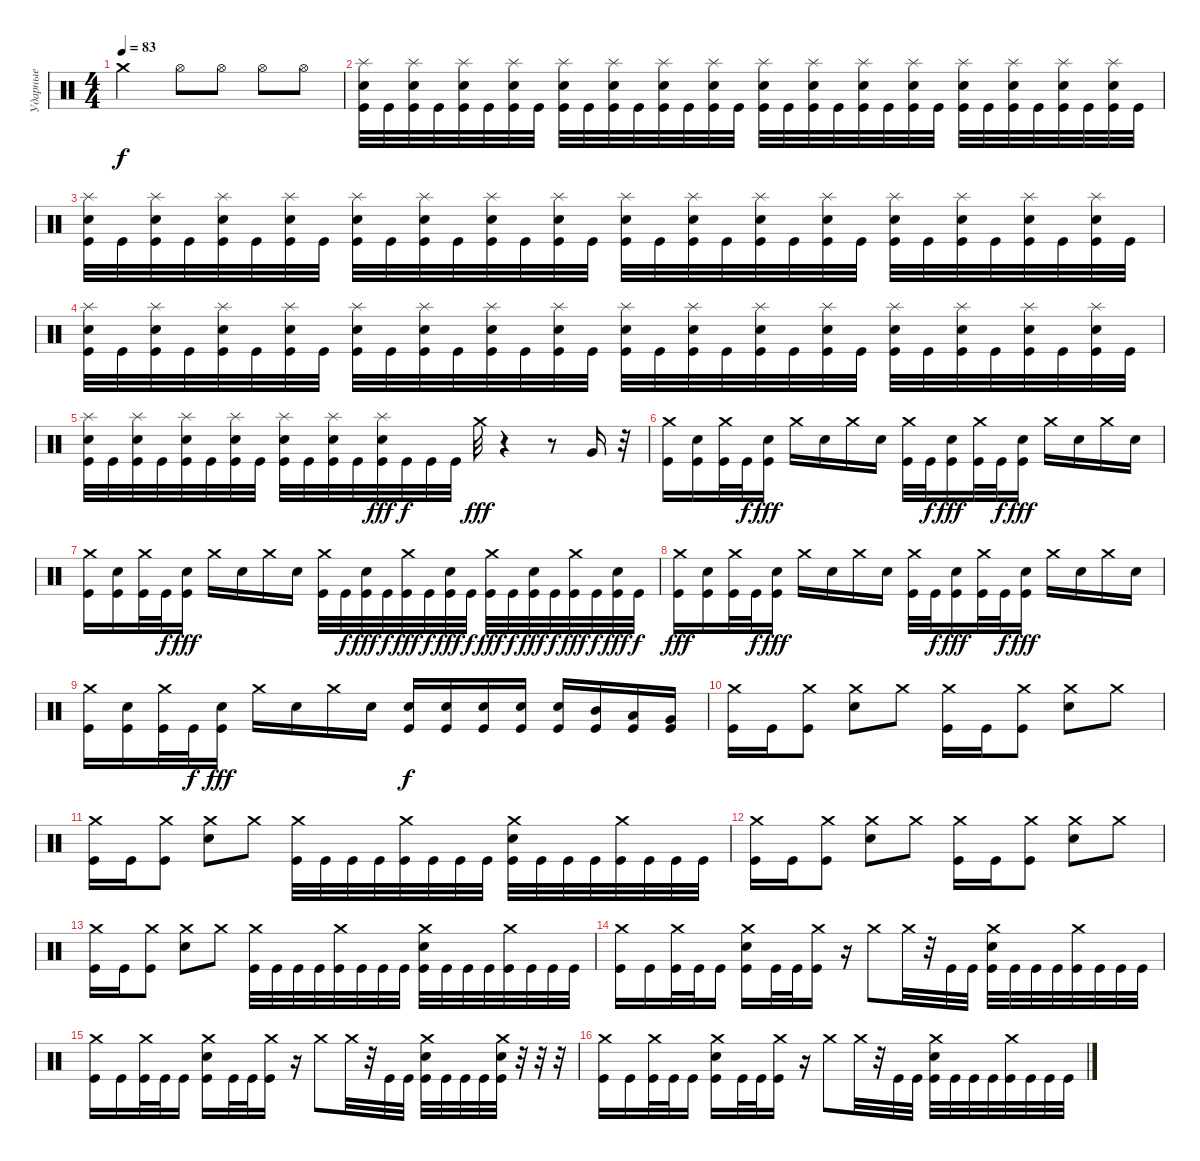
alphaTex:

\track ("Ударные" "Ударные") {instrument percussion}
\staff {score}
\articulation defaults
\ts (4 4)
\tempo 83
\clef neutral
\ks c "Crash medium (hit)".2{dy f} "Hi-Hat (open)".8 "Hi-Hat (open)".8 "Hi-Hat (open)".8 "Hi-Hat (open)".8
|
("Splash (hit)" "Snare (hit) 2" "Kick (hit)").32 "Kick (hit)".32 ("Splash (hit)" "Snare (hit) 2" "Kick (hit)").32 "Kick (hit)".32 ("Splash (hit)" "Snare (hit) 2" "Kick (hit)").32 "Kick (hit)".32 ("Splash (hit)" "Snare (hit) 2" "Kick (hit)").32 "Kick (hit)".32 ("Splash (hit)" "Snare (hit) 2" "Kick (hit)").32 "Kick (hit)".32 ("Splash (hit)" "Snare (hit) 2" "Kick (hit)").32 "Kick (hit)".32 ("Splash (hit)" "Snare (hit) 2" "Kick (hit)").32 "Kick (hit)".32 ("Splash (hit)" "Snare (hit) 2" "Kick (hit)").32 "Kick (hit)".32 ("Splash (hit)" "Snare (hit) 2" "Kick (hit)").32 "Kick (hit)".32 ("Splash (hit)" "Snare (hit) 2" "Kick (hit)").32 "Kick (hit)".32 ("Splash (hit)" "Snare (hit) 2" "Kick (hit)").32 "Kick (hit)".32 ("Splash (hit)" "Snare (hit) 2" "Kick (hit)").32 "Kick (hit)".32 ("Splash (hit)" "Snare (hit) 2" "Kick (hit)").32 "Kick (hit)".32 ("Splash (hit)" "Snare (hit) 2" "Kick (hit)").32 "Kick (hit)".32 ("Splash (hit)" "Snare (hit) 2" "Kick (hit)").32 "Kick (hit)".32 ("Splash (hit)" "Snare (hit) 2" "Kick (hit)").32 "Kick (hit)".32 |
("Splash (hit)" "Snare (hit) 2" "Kick (hit)").32 "Kick (hit)".32 ("Splash (hit)" "Snare (hit) 2" "Kick (hit)").32 "Kick (hit)".32 ("Splash (hit)" "Snare (hit) 2" "Kick (hit)").32 "Kick (hit)".32 ("Splash (hit)" "Snare (hit) 2" "Kick (hit)").32 "Kick (hit)".32 ("Splash (hit)" "Snare (hit) 2" "Kick (hit)").32 "Kick (hit)".32 ("Splash (hit)" "Snare (hit) 2" "Kick (hit)").32 "Kick (hit)".32 ("Splash (hit)" "Snare (hit) 2" "Kick (hit)").32 "Kick (hit)".32 ("Splash (hit)" "Snare (hit) 2" "Kick (hit)").32 "Kick (hit)".32 ("Splash (hit)" "Snare (hit) 2" "Kick (hit)").32 "Kick (hit)".32 ("Splash (hit)" "Snare (hit) 2" "Kick (hit)").32 "Kick (hit)".32 ("Splash (hit)" "Snare (hit) 2" "Kick (hit)").32 "Kick (hit)".32 ("Splash (hit)" "Snare (hit) 2" "Kick (hit)").32 "Kick (hit)".32 ("Splash (hit)" "Snare (hit) 2" "Kick (hit)").32 "Kick (hit)".32 ("Splash (hit)" "Snare (hit) 2" "Kick (hit)").32 "Kick (hit)".32 ("Splash (hit)" "Snare (hit) 2" "Kick (hit)").32 "Kick (hit)".32 ("Splash (hit)" "Snare (hit) 2" "Kick (hit)").32 "Kick (hit)".32 |
("Splash (hit)" "Snare (hit) 2" "Kick (hit)").32 "Kick (hit)".32 ("Splash (hit)" "Snare (hit) 2" "Kick (hit)").32 "Kick (hit)".32 ("Splash (hit)" "Snare (hit) 2" "Kick (hit)").32 "Kick (hit)".32 ("Splash (hit)" "Snare (hit) 2" "Kick (hit)").32 "Kick (hit)".32 ("Splash (hit)" "Snare (hit) 2" "Kick (hit)").32 "Kick (hit)".32 ("Splash (hit)" "Snare (hit) 2" "Kick (hit)").32 "Kick (hit)".32 ("Splash (hit)" "Snare (hit) 2" "Kick (hit)").32 "Kick (hit)".32 ("Splash (hit)" "Snare (hit) 2" "Kick (hit)").32 "Kick (hit)".32 ("Splash (hit)" "Snare (hit) 2" "Kick (hit)").32 "Kick (hit)".32 ("Splash (hit)" "Snare (hit) 2" "Kick (hit)").32 "Kick (hit)".32 ("Splash (hit)" "Snare (hit) 2" "Kick (hit)").32 "Kick (hit)".32 ("Splash (hit)" "Snare (hit) 2" "Kick (hit)").32 "Kick (hit)".32 ("Splash (hit)" "Snare (hit) 2" "Kick (hit)").32 "Kick (hit)".32 ("Splash (hit)" "Snare (hit) 2" "Kick (hit)").32 "Kick (hit)".32 ("Splash (hit)" "Snare (hit) 2" "Kick (hit)").32 "Kick (hit)".32 ("Splash (hit)" "Snare (hit) 2" "Kick (hit)").32 "Kick (hit)".32 |
("Splash (hit)" "Snare (hit) 2" "Kick (hit)").32 "Kick (hit)".32 ("Splash (hit)" "Snare (hit) 2" "Kick (hit)").32 "Kick (hit)".32 ("Splash (hit)" "Snare (hit) 2" "Kick (hit)").32 "Kick (hit)".32 ("Splash (hit)" "Snare (hit) 2" "Kick (hit)").32 "Kick (hit)".32 ("Splash (hit)" "Snare (hit) 2" "Kick (hit)").32 "Kick (hit)".32 ("Splash (hit)" "Snare (hit) 2" "Kick (hit)").32 "Kick (hit)".32 ("Splash (hit)" "Snare (hit) 2" "Kick (hit)").32{dy fff} "Kick (hit)".32{dy f} "Kick (hit)".32 "Kick (hit)".32 "Crash medium (hit)".32{dy fff} r.4 r.8 "Very Low Tom (hit)".16 r.32 |
("Crash medium (hit)" "Kick (hit)").16 ("Snare (hit) 2" "Kick (hit)").16 ("Crash medium (hit)" "Kick (hit)").32 "Kick (hit)".32{dy f} ("Snare (hit) 2" "Kick (hit)").16{dy fff} "Crash medium (hit)".16 "Snare (hit) 2".16 "Crash medium (hit)".16 "Snare (hit) 2".16 ("Crash medium (hit)" "Kick (hit)").32 "Kick (hit)".32{dy f} ("Snare (hit) 2" "Kick (hit)").16{dy fff} ("Crash medium (hit)" "Kick (hit)").32 "Kick (hit)".32{dy f} ("Snare (hit) 2" "Kick (hit)").16{dy fff} "Crash medium (hit)".16 "Snare (hit) 2".16 "Crash medium (hit)".16 "Snare (hit) 2".16 |
("Crash medium (hit)" "Kick (hit)").16 ("Snare (hit) 2" "Kick (hit)").16 ("Crash medium (hit)" "Kick (hit)").32 "Kick (hit)".32{dy f} ("Snare (hit) 2" "Kick (hit)").16{dy fff} "Crash medium (hit)".16 "Snare (hit) 2".16 "Crash medium (hit)".16 "Snare (hit) 2".16 ("Crash medium (hit)" "Kick (hit)").32 "Kick (hit)".32{dy f} ("Snare (hit) 2" "Kick (hit)").32{dy fff} "Kick (hit)".32{dy f} ("Crash medium (hit)" "Kick (hit)").32{dy fff} "Kick (hit)".32{dy f} ("Snare (hit) 2" "Kick (hit)").32{dy fff} "Kick (hit)".32{dy f} ("Crash medium (hit)" "Kick (hit)").32{dy fff} "Kick (hit)".32{dy f} ("Snare (hit) 2" "Kick (hit)").32{dy fff} "Kick (hit)".32{dy f} ("Crash medium (hit)" "Kick (hit)").32{dy fff} "Kick (hit)".32{dy f} ("Snare (hit) 2" "Kick (hit)").32{dy fff} "Kick (hit)".32{dy f} |
("Crash medium (hit)" "Kick (hit)").16{dy fff} ("Snare (hit) 2" "Kick (hit)").16 ("Crash medium (hit)" "Kick (hit)").32 "Kick (hit)".32{dy f} ("Snare (hit) 2" "Kick (hit)").16{dy fff} "Crash medium (hit)".16 "Snare (hit) 2".16 "Crash medium (hit)".16 "Snare (hit) 2".16 ("Crash medium (hit)" "Kick (hit)").32 "Kick (hit)".32{dy f} ("Snare (hit) 2" "Kick (hit)").16{dy fff} ("Crash medium (hit)" "Kick (hit)").32 "Kick (hit)".32{dy f} ("Snare (hit) 2" "Kick (hit)").16{dy fff} "Crash medium (hit)".16 "Snare (hit) 2".16 "Crash medium (hit)".16 "Snare (hit) 2".16 |
("Crash medium (hit)" "Kick (hit)").16 ("Snare (hit) 2" "Kick (hit)").16 ("Crash medium (hit)" "Kick (hit)").32 "Kick (hit)".32{dy f} ("Snare (hit) 2" "Kick (hit)").16{dy fff} "Crash medium (hit)".16 "Snare (hit) 2".16 "Crash medium (hit)".16 "Snare (hit) 2".16 ("Snare (hit) 2" "Kick (hit)").16{dy f} ("Snare (hit) 2" "Kick (hit)").16 ("Snare (hit) 2" "Kick (hit)").16 ("Snare (hit) 2" "Kick (hit)").16 ("Snare (hit) 2" "Kick (hit)").16 ("Mid Tom (hit)" "Kick (hit)").16 ("Low Tom (hit)" "Kick (hit)").16 ("Very Low Tom (hit)" "Kick (hit)").16 |
("Crash medium (hit)" "Kick (hit)").16 "Kick (hit)".16 ("Crash medium (hit)" "Kick (hit)").8 ("Crash medium (hit)" "Snare (hit) 2").8 "Crash medium (hit)".8 ("Crash medium (hit)" "Kick (hit)").16 "Kick (hit)".16 ("Crash medium (hit)" "Kick (hit)").8 ("Crash medium (hit)" "Snare (hit) 2").8 "Crash medium (hit)".8 |
("Crash medium (hit)" "Kick (hit)").16 "Kick (hit)".16 ("Crash medium (hit)" "Kick (hit)").8 ("Crash medium (hit)" "Snare (hit) 2").8 "Crash medium (hit)".8 ("Crash medium (hit)" "Kick (hit)").32 "Kick (hit)".32 "Kick (hit)".32 "Kick (hit)".32 ("Crash medium (hit)" "Kick (hit)").32 "Kick (hit)".32 "Kick (hit)".32 "Kick (hit)".32 ("Crash medium (hit)" "Snare (hit) 2" "Kick (hit)").32 "Kick (hit)".32 "Kick (hit)".32 "Kick (hit)".32 ("Crash medium (hit)" "Kick (hit)").32 "Kick (hit)".32 "Kick (hit)".32 "Kick (hit)".32 |
("Crash medium (hit)" "Kick (hit)").16 "Kick (hit)".16 ("Crash medium (hit)" "Kick (hit)").8 ("Crash medium (hit)" "Snare (hit) 2").8 "Crash medium (hit)".8 ("Crash medium (hit)" "Kick (hit)").16 "Kick (hit)".16 ("Crash medium (hit)" "Kick (hit)").8 ("Crash medium (hit)" "Snare (hit) 2").8 "Crash medium (hit)".8 |
("Crash medium (hit)" "Kick (hit)").16 "Kick (hit)".16 ("Crash medium (hit)" "Kick (hit)").8 ("Crash medium (hit)" "Snare (hit) 2").8 "Crash medium (hit)".8 ("Crash medium (hit)" "Kick (hit)").32 "Kick (hit)".32 "Kick (hit)".32 "Kick (hit)".32 ("Crash medium (hit)" "Kick (hit)").32 "Kick (hit)".32 "Kick (hit)".32 "Kick (hit)".32 ("Crash medium (hit)" "Snare (hit) 2" "Kick (hit)").32 "Kick (hit)".32 "Kick (hit)".32 "Kick (hit)".32 ("Crash medium (hit)" "Kick (hit)").32 "Kick (hit)".32 "Kick (hit)".32 "Kick (hit)".32 |
("Crash medium (hit)" "Kick (hit)").16 "Kick (hit)".16 ("Crash medium (hit)" "Kick (hit)").32 "Kick (hit)".32 "Kick (hit)".16 ("Crash medium (hit)" "Snare (hit) 2" "Kick (hit)").16 "Kick (hit)".32 "Kick (hit)".32 ("Crash medium (hit)" "Kick (hit)").16 r.16 "Crash medium (hit)".8 "Crash medium (hit)".32 r.32 "Kick (hit)".32 "Kick (hit)".32 ("Crash medium (hit)" "Snare (hit) 2" "Kick (hit)").32 "Kick (hit)".32 "Kick (hit)".32 "Kick (hit)".32 ("Crash medium (hit)" "Kick (hit)").32 "Kick (hit)".32 "Kick (hit)".32 "Kick (hit)".32 |
("Crash medium (hit)" "Kick (hit)").16 "Kick (hit)".16 ("Crash medium (hit)" "Kick (hit)").32 "Kick (hit)".32 "Kick (hit)".16 ("Crash medium (hit)" "Snare (hit) 2" "Kick (hit)").16 "Kick (hit)".32 "Kick (hit)".32 ("Crash medium (hit)" "Kick (hit)").16 r.16 "Crash medium (hit)".8 "Crash medium (hit)".32 r.32 "Kick (hit)".32 "Kick (hit)".32 ("Crash medium (hit)" "Snare (hit) 2" "Kick (hit)").32 "Kick (hit)".32 "Kick (hit)".32 "Kick (hit)".32 ("Crash medium (hit)" "Snare (hit) 2" "Kick (hit)").32 r.32 r.32 r.32 |
("Crash medium (hit)" "Kick (hit)").16 "Kick (hit)".16 ("Crash medium (hit)" "Kick (hit)").32 "Kick (hit)".32 "Kick (hit)".16 ("Crash medium (hit)" "Snare (hit) 2" "Kick (hit)").16 "Kick (hit)".32 "Kick (hit)".32 ("Crash medium (hit)" "Kick (hit)").16 r.16 "Crash medium (hit)".8 "Crash medium (hit)".32 r.32 "Kick (hit)".32 "Kick (hit)".32 ("Crash medium (hit)" "Snare (hit) 2" "Kick (hit)").32 "Kick (hit)".32 "Kick (hit)".32 "Kick (hit)".32 ("Crash medium (hit)" "Kick (hit)").32 "Kick (hit)".32 "Kick (hit)".32 "Kick (hit)".32
